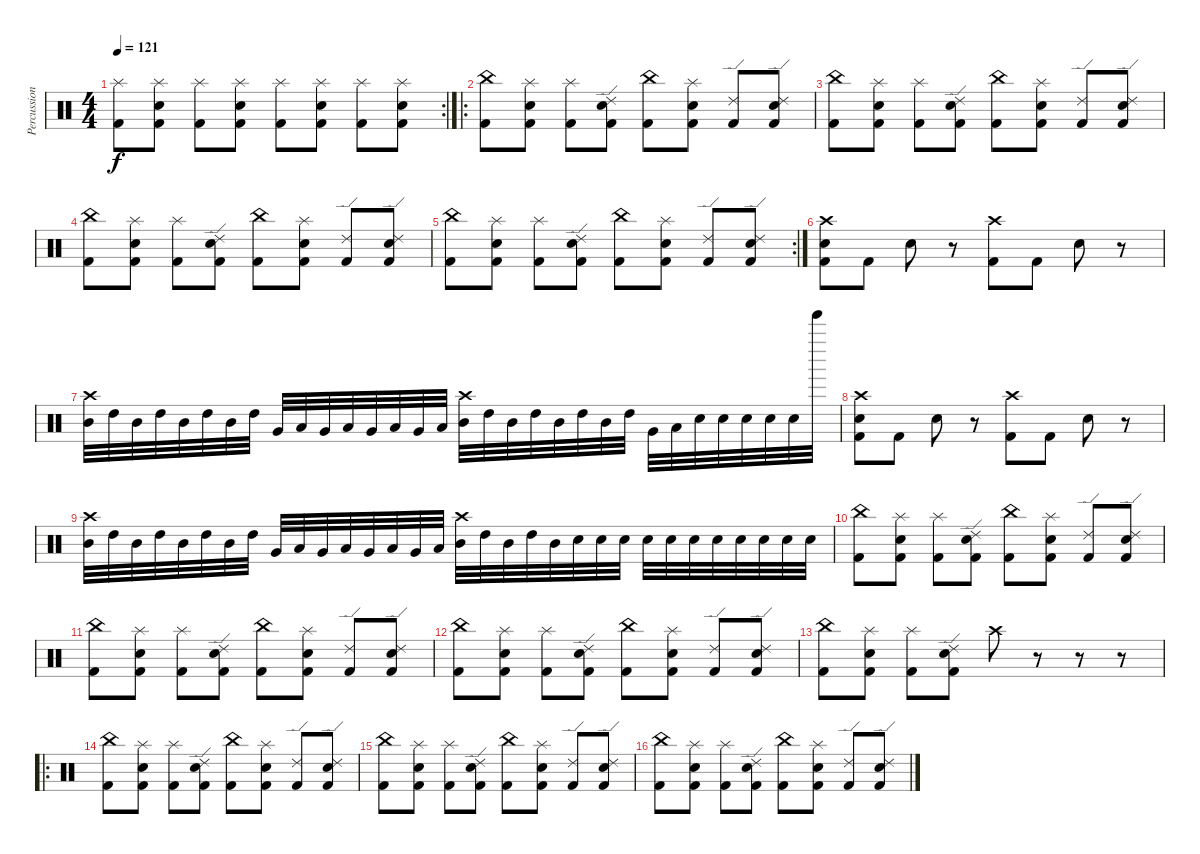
\track ("Percussion" "Percussion") {instrument percussion}
\staff {score}
\articulation defaults
\rc 2
\ts (4 4)
\tempo 121
\clef neutral
\ks c
("Splash (hit)" "Kick (hit) 2").8{dy f} ("Splash (hit)" "Snare (hit) 2" "Kick (hit) 2").8 ("Splash (hit)" "Kick (hit) 2").8 ("Splash (hit)" "Snare (hit) 2" "Kick (hit) 2").8 ("Splash (hit)" "Kick (hit) 2").8 ("Splash (hit)" "Snare (hit) 2" "Kick (hit) 2").8 ("Splash (hit)" "Kick (hit) 2").8 ("Splash (hit)" "Snare (hit) 2" "Kick (hit) 2").8 |
\ro
("China (hit)" "Kick (hit) 2").8 ("Splash (hit)" "Snare (hit) 2" "Kick (hit) 2").8 ("Splash (hit)" "Kick (hit) 2").8 ("Ride (edge) 2" "Snare (hit) 2" "Kick (hit) 2").8 ("China (hit)" "Kick (hit) 2").8 ("Splash (hit)" "Snare (hit) 2" "Kick (hit) 2").8 ("Ride (edge) 2" "Kick (hit) 2").8 ("Ride (edge) 2" "Snare (hit) 2" "Kick (hit) 2").8 |
("China (hit)" "Kick (hit) 2").8 ("Splash (hit)" "Snare (hit) 2" "Kick (hit) 2").8 ("Splash (hit)" "Kick (hit) 2").8 ("Ride (edge) 2" "Snare (hit) 2" "Kick (hit) 2").8 ("China (hit)" "Kick (hit) 2").8 ("Splash (hit)" "Snare (hit) 2" "Kick (hit) 2").8 ("Ride (edge) 2" "Kick (hit) 2").8 ("Ride (edge) 2" "Snare (hit) 2" "Kick (hit) 2").8 |
("China (hit)" "Kick (hit) 2").8 ("Splash (hit)" "Snare (hit) 2" "Kick (hit) 2").8 ("Splash (hit)" "Kick (hit) 2").8 ("Ride (edge) 2" "Snare (hit) 2" "Kick (hit) 2").8 ("China (hit)" "Kick (hit) 2").8 ("Splash (hit)" "Snare (hit) 2" "Kick (hit) 2").8 ("Ride (edge) 2" "Kick (hit) 2").8 ("Ride (edge) 2" "Snare (hit) 2" "Kick (hit) 2").8 |
\rc 2
("China (hit)" "Kick (hit) 2").8 ("Splash (hit)" "Snare (hit) 2" "Kick (hit) 2").8 ("Splash (hit)" "Kick (hit) 2").8 ("Ride (edge) 2" "Snare (hit) 2" "Kick (hit) 2").8 ("China (hit)" "Kick (hit) 2").8 ("Splash (hit)" "Snare (hit) 2" "Kick (hit) 2").8 ("Ride (edge) 2" "Kick (hit) 2").8 ("Ride (edge) 2" "Snare (hit) 2" "Kick (hit) 2").8 |
("Snare (hit) 2" "Crash high (hit)" "Kick (hit) 2").8 "Kick (hit) 2".8 "Snare (hit) 2".8 r.8 ("Crash high (hit)" "Kick (hit) 2").8 "Kick (hit) 2".8 "Snare (hit) 2".8 r.8 |
("Crash high (hit)" "Mid Tom (hit)").32 "High Tom (hit)".32 "Mid Tom (hit)".32 "High Tom (hit)".32 "Mid Tom (hit)".32 "High Tom (hit)".32 "Mid Tom (hit)".32 "High Tom (hit)".32 "Very Low Tom (hit)".32 "Low Tom (hit)".32 "Very Low Tom (hit)".32 "Low Tom (hit)".32 "Very Low Tom (hit)".32 "Low Tom (hit)".32 "Very Low Tom (hit)".32 "Low Tom (hit)".32 ("Crash high (hit)" "Mid Tom (hit)").32 "High Tom (hit)".32 "Mid Tom (hit)".32 "High Tom (hit)".32 "Mid Tom (hit)".32 "High Tom (hit)".32 "Mid Tom (hit)".32 "High Tom (hit)".32 "Very Low Tom (hit)".32 "Low Tom (hit)".32 "Snare (hit) 2".32 "Snare (hit) 2".32 "Snare (hit) 2".32 "Snare (hit) 2".32 "Snare (hit) 2".32 "Tinkle Bell (hit)".32 |
("Snare (hit) 2" "Crash high (hit)" "Kick (hit) 2").8 "Kick (hit) 2".8 "Snare (hit) 2".8 r.8 ("Crash high (hit)" "Kick (hit) 2").8 "Kick (hit) 2".8 "Snare (hit) 2".8 r.8 |
("Crash high (hit)" "Mid Tom (hit)").32 "High Tom (hit)".32 "Mid Tom (hit)".32 "High Tom (hit)".32 "Mid Tom (hit)".32 "High Tom (hit)".32 "Mid Tom (hit)".32 "High Tom (hit)".32 "Very Low Tom (hit)".32 "Low Tom (hit)".32 "Very Low Tom (hit)".32 "Low Tom (hit)".32 "Very Low Tom (hit)".32 "Low Tom (hit)".32 "Very Low Tom (hit)".32 "Low Tom (hit)".32 ("Crash high (hit)" "Mid Tom (hit)").32 "High Tom (hit)".32 "Mid Tom (hit)".32 "High Tom (hit)".32 "Mid Tom (hit)".32 "Snare (hit) 2".32 "Snare (hit) 2".32 "Snare (hit) 2".32 "Snare (hit) 2".32 "Snare (hit) 2".32 "Snare (hit) 2".32 "Snare (hit) 2".32 "Snare (hit) 2".32 "Snare (hit) 2".32 "Snare (hit) 2".32 "Snare (hit) 2".32 |
("China (hit)" "Kick (hit) 2").8 ("Splash (hit)" "Snare (hit) 2" "Kick (hit) 2").8 ("Splash (hit)" "Kick (hit) 2").8 ("Ride (edge) 2" "Snare (hit) 2" "Kick (hit) 2").8 ("China (hit)" "Kick (hit) 2").8 ("Splash (hit)" "Snare (hit) 2" "Kick (hit) 2").8 ("Ride (edge) 2" "Kick (hit) 2").8 ("Ride (edge) 2" "Snare (hit) 2" "Kick (hit) 2").8 |
("China (hit)" "Kick (hit) 2").8 ("Splash (hit)" "Snare (hit) 2" "Kick (hit) 2").8 ("Splash (hit)" "Kick (hit) 2").8 ("Ride (edge) 2" "Snare (hit) 2" "Kick (hit) 2").8 ("China (hit)" "Kick (hit) 2").8 ("Splash (hit)" "Snare (hit) 2" "Kick (hit) 2").8 ("Ride (edge) 2" "Kick (hit) 2").8 ("Ride (edge) 2" "Snare (hit) 2" "Kick (hit) 2").8 |
("China (hit)" "Kick (hit) 2").8 ("Splash (hit)" "Snare (hit) 2" "Kick (hit) 2").8 ("Splash (hit)" "Kick (hit) 2").8 ("Ride (edge) 2" "Snare (hit) 2" "Kick (hit) 2").8 ("China (hit)" "Kick (hit) 2").8 ("Splash (hit)" "Snare (hit) 2" "Kick (hit) 2").8 ("Ride (edge) 2" "Kick (hit) 2").8 ("Ride (edge) 2" "Snare (hit) 2" "Kick (hit) 2").8 |
("China (hit)" "Kick (hit) 2").8 ("Splash (hit)" "Snare (hit) 2" "Kick (hit) 2").8 ("Splash (hit)" "Kick (hit) 2").8 ("Ride (edge) 2" "Snare (hit) 2" "Kick (hit) 2").8 "Crash high (hit)".8 r.8 r.8 r.8 |
\ro
("China (hit)" "Kick (hit) 2").8 ("Splash (hit)" "Snare (hit) 2" "Kick (hit) 2").8 ("Splash (hit)" "Kick (hit) 2").8 ("Ride (edge) 2" "Snare (hit) 2" "Kick (hit) 2").8 ("China (hit)" "Kick (hit) 2").8 ("Splash (hit)" "Snare (hit) 2" "Kick (hit) 2").8 ("Ride (edge) 2" "Kick (hit) 2").8 ("Ride (edge) 2" "Snare (hit) 2" "Kick (hit) 2").8 |
("China (hit)" "Kick (hit) 2").8 ("Splash (hit)" "Snare (hit) 2" "Kick (hit) 2").8 ("Splash (hit)" "Kick (hit) 2").8 ("Ride (edge) 2" "Snare (hit) 2" "Kick (hit) 2").8 ("China (hit)" "Kick (hit) 2").8 ("Splash (hit)" "Snare (hit) 2" "Kick (hit) 2").8 ("Ride (edge) 2" "Kick (hit) 2").8 ("Ride (edge) 2" "Snare (hit) 2" "Kick (hit) 2").8 |
("China (hit)" "Kick (hit) 2").8 ("Splash (hit)" "Snare (hit) 2" "Kick (hit) 2").8 ("Splash (hit)" "Kick (hit) 2").8 ("Ride (edge) 2" "Snare (hit) 2" "Kick (hit) 2").8 ("China (hit)" "Kick (hit) 2").8 ("Splash (hit)" "Snare (hit) 2" "Kick (hit) 2").8 ("Ride (edge) 2" "Kick (hit) 2").8 ("Ride (edge) 2" "Snare (hit) 2" "Kick (hit) 2").8
